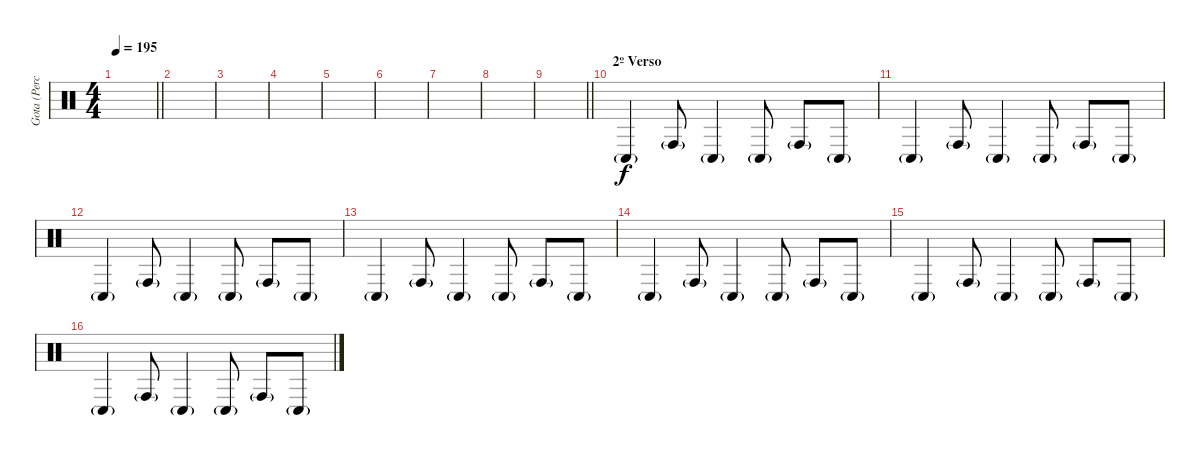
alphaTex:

\track ("Gota (Percussion)" "Gota (Perc") {instrument percussion}
\staff {score}
\articulation defaults
\ts (4 4)
\tempo 195
\clef neutral
\barLineRight lightlight
\ks c
|
|
|
|
|
|
|
|
\barLineRight lightlight
|
\section ("" "2º Verso")
"Conga low (hit)"{g}.4 "Conga high (hit)"{g}.8 "Conga low (hit)"{g}.4 "Conga low (hit)"{g}.8 "Conga high (hit)"{g}.8 "Conga low (hit)"{g}.8 |
"Conga low (hit)"{g}.4 "Conga high (hit)"{g}.8 "Conga low (hit)"{g}.4 "Conga low (hit)"{g}.8 "Conga high (hit)"{g}.8 "Conga low (hit)"{g}.8 |
"Conga low (hit)"{g}.4 "Conga high (hit)"{g}.8 "Conga low (hit)"{g}.4 "Conga low (hit)"{g}.8 "Conga high (hit)"{g}.8 "Conga low (hit)"{g}.8 |
"Conga low (hit)"{g}.4 "Conga high (hit)"{g}.8 "Conga low (hit)"{g}.4 "Conga low (hit)"{g}.8 "Conga high (hit)"{g}.8 "Conga low (hit)"{g}.8 |
"Conga low (hit)"{g}.4 "Conga high (hit)"{g}.8 "Conga low (hit)"{g}.4 "Conga low (hit)"{g}.8 "Conga high (hit)"{g}.8 "Conga low (hit)"{g}.8 |
"Conga low (hit)"{g}.4 "Conga high (hit)"{g}.8 "Conga low (hit)"{g}.4 "Conga low (hit)"{g}.8 "Conga high (hit)"{g}.8 "Conga low (hit)"{g}.8 |
"Conga low (hit)"{g}.4 "Conga high (hit)"{g}.8 "Conga low (hit)"{g}.4 "Conga low (hit)"{g}.8 "Conga high (hit)"{g}.8 "Conga low (hit)"{g}.8
